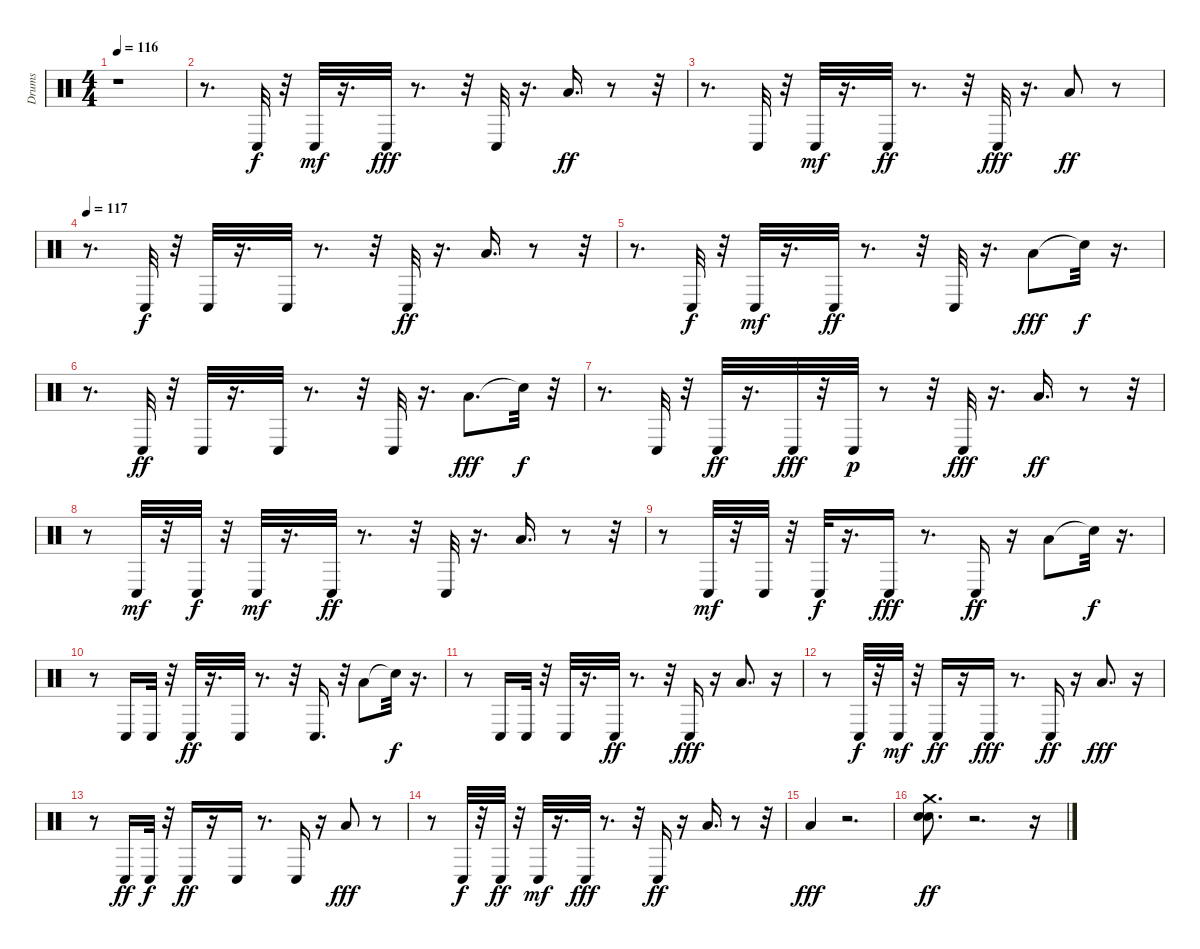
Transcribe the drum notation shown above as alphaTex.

\track ("Drums" "Drums") {instrument percussion}
\staff {score}
\articulation defaults
\ts (4 4)
\tempo 116
\clef neutral
\ks c
r.1{dy fff} |
r.8{d} "Conga low (hit)".32{dy f} r.32 "Conga low (hit)".32{dy mf} r.16{d} "Conga low (hit)".32{dy fff} r.8{d} r.32 "Conga low (hit)".32 r.16{d} "Low Tom (hit)".16{d dy ff} r.8 r.32 |
r.8{d} "Conga low (hit)".32 r.32 "Conga low (hit)".32{dy mf} r.16{d} "Conga low (hit)".32{dy ff} r.8{d} r.32 "Conga low (hit)".32{dy fff} r.16{d} "Low Tom (hit)".8{dy ff} r.8 |
\tempo 117
r.8{d} "Conga low (hit)".32{dy f} r.32 "Conga low (hit)".32 r.16{d} "Conga low (hit)".32 r.8{d} r.32 "Conga low (hit)".32{dy ff} r.16{d} "Low Tom (hit)".16{d} r.8 r.32 |
r.8{d} "Conga low (hit)".32{dy f} r.32 "Conga low (hit)".32{dy mf} r.16{d} "Conga low (hit)".32{dy ff} r.8{d} r.32 "Conga low (hit)".32 r.16{d} "Low Tom (hit)".8{dy fff} "Snare (hit)"{t}.32{dy f} r.16{d} |
r.8{d} "Conga low (hit)".32{dy ff} r.32 "Conga low (hit)".32 r.16{d} "Conga low (hit)".32 r.8{d} r.32 "Conga low (hit)".32 r.16{d} "Low Tom (hit)".8{d dy fff} "Snare (hit)"{t}.32{dy f} r.32 |
r.8{d} "Conga low (hit)".32 r.32 "Conga low (hit)".32{dy ff} r.16{d} "Conga low (hit)".32{dy fff} r.32 "Conga low (hit)".32{dy p} r.8 r.32 "Conga low (hit)".32{dy fff} r.16{d} "Low Tom (hit)".16{d dy ff} r.8 r.32 |
r.8 "Conga low (hit)".32{dy mf} r.32 "Conga low (hit)".32{dy f} r.32 "Conga low (hit)".32{dy mf} r.16{d} "Conga low (hit)".32{dy ff} r.8{d} r.32 "Conga low (hit)".32 r.16{d} "Low Tom (hit)".16{d} r.8 r.32 |
r.8 "Conga low (hit)".32{dy mf} r.32 "Conga low (hit)".32 r.32 "Conga low (hit)".32{dy f} r.16{d} "Conga low (hit)".16{dy fff} r.8{d} "Conga low (hit)".16{dy ff} r.16 "Low Tom (hit)".8 "Snare (hit)"{t}.32{dy f} r.16{d} |
r.8 "Conga low (hit)".16 "Conga low (hit)".32 r.32 "Conga low (hit)".32{dy ff} r.16{d} "Conga low (hit)".32 r.8{d} r.32 "Conga low (hit)".16{d} r.32 "Low Tom (hit)".8 "Snare (hit)"{t}.32{dy f} r.16{d} |
r.8 "Conga low (hit)".16 "Conga low (hit)".32 r.32 "Conga low (hit)".32 r.16{d} "Conga low (hit)".32{dy ff} r.8{d} r.32 "Conga low (hit)".16{dy fff} r.16 "Low Tom (hit)".8{d} r.16 |
r.8 "Conga low (hit)".32{dy f} r.32 "Conga low (hit)".32{dy mf} r.32 "Conga low (hit)".16{dy ff} r.16 "Conga low (hit)".16{dy fff} r.8{d} "Conga low (hit)".16{dy ff} r.16 "Low Tom (hit)".8{d dy fff} r.16 |
r.8 "Conga low (hit)".16{dy ff} "Conga low (hit)".32{dy f} r.32 "Conga low (hit)".16{dy ff} r.16 "Conga low (hit)".16 r.8{d} "Conga low (hit)".16 r.16 "Low Tom (hit)".8{dy fff} r.8 |
r.8 "Conga low (hit)".32{dy f} r.32 "Conga low (hit)".32{dy ff} r.32 "Conga low (hit)".32{dy mf} r.16{d} "Conga low (hit)".32{dy fff} r.8{d} r.32 "Conga low (hit)".16{dy ff} r.16 "Low Tom (hit)".16{d} r.8 r.32 |
"Low Tom (hit)".4{dy fff} r.2{d} |
("Crash medium (hit)" "Snare (hit) 2" "Electric Snare (hit)").8{d dy ff} r.2{d} r.16
